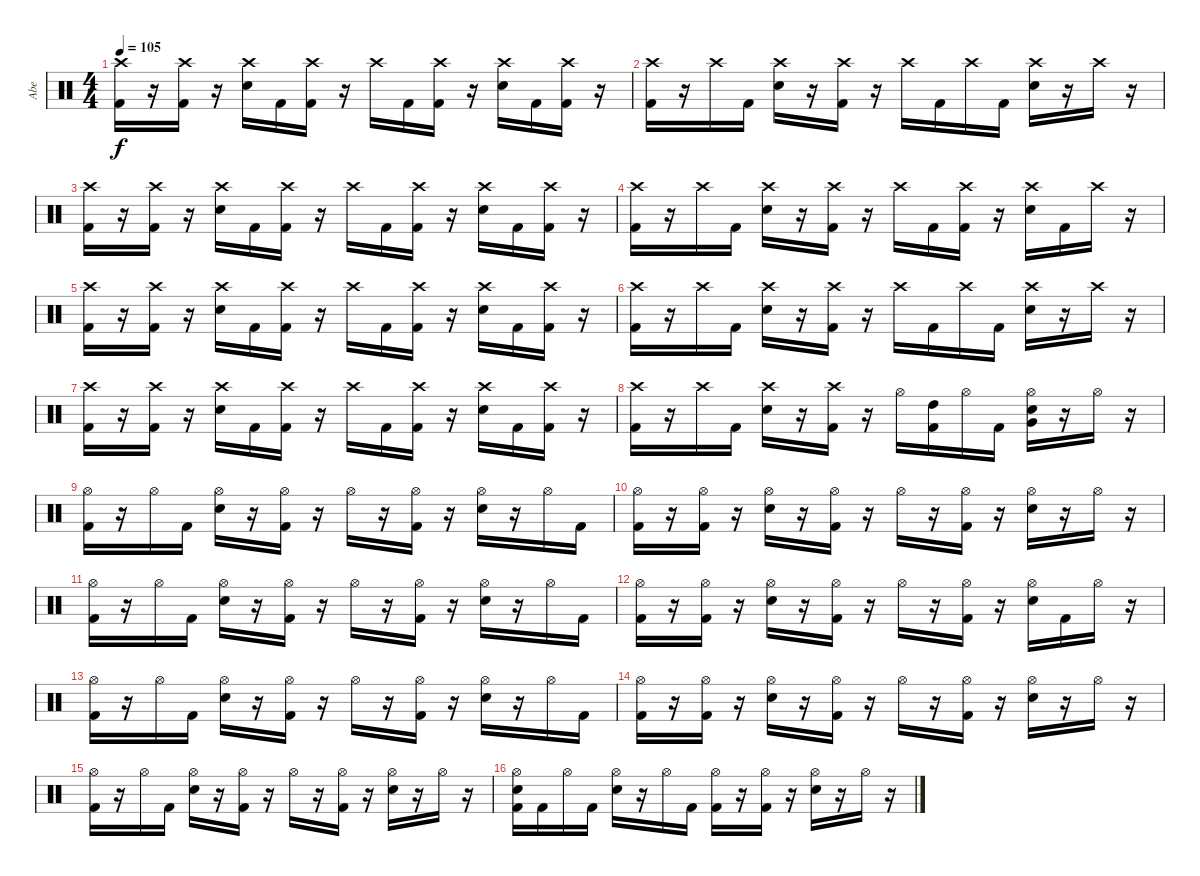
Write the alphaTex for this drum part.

\track ("Abe" "Abe") {instrument percussion}
\staff {score}
\articulation defaults
\ts (4 4)
\tempo 105
\clef neutral
\ks c
("Crash high (hit)" "Kick (hit) 2").16{dy f} r.16 ("Crash high (hit)" "Kick (hit) 2").16 r.16 ("Crash high (hit)" "Electric Snare (hit)").16 "Kick (hit) 2".16 ("Crash high (hit)" "Kick (hit) 2").16 r.16 "Crash high (hit)".16 "Kick (hit) 2".16 ("Crash high (hit)" "Kick (hit) 2").16 r.16 ("Crash high (hit)" "Electric Snare (hit)").16 "Kick (hit) 2".16 ("Crash high (hit)" "Kick (hit) 2").16 r.16 |
("Crash high (hit)" "Kick (hit) 2").16 r.16 "Crash high (hit)".16 "Kick (hit) 2".16 ("Crash high (hit)" "Electric Snare (hit)").16 r.16 ("Crash high (hit)" "Kick (hit) 2").16 r.16 "Crash high (hit)".16 "Kick (hit) 2".16 "Crash high (hit)".16 "Kick (hit) 2".16 ("Crash high (hit)" "Electric Snare (hit)").16 r.16 "Crash high (hit)".16 r.16 |
("Crash high (hit)" "Kick (hit) 2").16 r.16 ("Crash high (hit)" "Kick (hit) 2").16 r.16 ("Crash high (hit)" "Electric Snare (hit)").16 "Kick (hit) 2".16 ("Crash high (hit)" "Kick (hit) 2").16 r.16 "Crash high (hit)".16 "Kick (hit) 2".16 ("Crash high (hit)" "Kick (hit) 2").16 r.16 ("Crash high (hit)" "Electric Snare (hit)").16 "Kick (hit) 2".16 ("Crash high (hit)" "Kick (hit) 2").16 r.16 |
("Crash high (hit)" "Kick (hit) 2").16 r.16 "Crash high (hit)".16 "Kick (hit) 2".16 ("Crash high (hit)" "Electric Snare (hit)").16 r.16 ("Crash high (hit)" "Kick (hit) 2").16 r.16 "Crash high (hit)".16 "Kick (hit) 2".16 ("Crash high (hit)" "Kick (hit) 2").16 r.16 ("Crash high (hit)" "Electric Snare (hit)").16 "Kick (hit) 2".16 "Crash high (hit)".16 r.16 |
("Crash high (hit)" "Kick (hit) 2").16 r.16 ("Crash high (hit)" "Kick (hit) 2").16 r.16 ("Crash high (hit)" "Electric Snare (hit)").16 "Kick (hit) 2".16 ("Crash high (hit)" "Kick (hit) 2").16 r.16 "Crash high (hit)".16 "Kick (hit) 2".16 ("Crash high (hit)" "Kick (hit) 2").16 r.16 ("Crash high (hit)" "Electric Snare (hit)").16 "Kick (hit) 2".16 ("Crash high (hit)" "Kick (hit) 2").16 r.16 |
("Crash high (hit)" "Kick (hit) 2").16 r.16 "Crash high (hit)".16 "Kick (hit) 2".16 ("Crash high (hit)" "Electric Snare (hit)").16 r.16 ("Crash high (hit)" "Kick (hit) 2").16 r.16 "Crash high (hit)".16 "Kick (hit) 2".16 "Crash high (hit)".16 "Kick (hit) 2".16 ("Crash high (hit)" "Electric Snare (hit)").16 r.16 "Crash high (hit)".16 r.16 |
("Crash high (hit)" "Kick (hit) 2").16 r.16 ("Crash high (hit)" "Kick (hit) 2").16 r.16 ("Crash high (hit)" "Electric Snare (hit)").16 "Kick (hit) 2".16 ("Crash high (hit)" "Kick (hit) 2").16 r.16 "Crash high (hit)".16 "Kick (hit) 2".16 ("Crash high (hit)" "Kick (hit) 2").16 r.16 ("Crash high (hit)" "Electric Snare (hit)").16 "Kick (hit) 2".16 ("Crash high (hit)" "Kick (hit) 2").16 r.16 |
("Crash high (hit)" "Kick (hit) 2").16 r.16 "Crash high (hit)".16 "Kick (hit) 2".16 ("Crash high (hit)" "Electric Snare (hit)").16 r.16 ("Crash high (hit)" "Kick (hit) 2").16 r.16 "Hi-Hat (open)".16 ("High Tom (hit)" "Kick (hit) 2").16 "Hi-Hat (open)".16 "Kick (hit) 2".16 ("Electric Snare (hit)" "Hi-Hat (open)" "Very Low Tom (hit)").16 r.16 "Hi-Hat (open)".16 r.16 |
("Hi-Hat (open)" "Kick (hit) 2").16 r.16 "Hi-Hat (open)".16 "Kick (hit) 2".16 ("Hi-Hat (open)" "Electric Snare (hit)").16 r.16 ("Hi-Hat (open)" "Kick (hit) 2").16 r.16 "Hi-Hat (open)".16 r.16 ("Hi-Hat (open)" "Kick (hit) 2").16 r.16 ("Hi-Hat (open)" "Electric Snare (hit)").16 r.16 "Hi-Hat (open)".16 "Kick (hit) 2".16 |
("Hi-Hat (open)" "Kick (hit) 2").16 r.16 ("Hi-Hat (open)" "Kick (hit) 2").16 r.16 ("Hi-Hat (open)" "Electric Snare (hit)").16 r.16 ("Hi-Hat (open)" "Kick (hit) 2").16 r.16 "Hi-Hat (open)".16 r.16 ("Hi-Hat (open)" "Kick (hit) 2").16 r.16 ("Hi-Hat (open)" "Electric Snare (hit)").16 r.16 "Hi-Hat (open)".16 r.16 |
("Hi-Hat (open)" "Kick (hit) 2").16 r.16 "Hi-Hat (open)".16 "Kick (hit) 2".16 ("Hi-Hat (open)" "Electric Snare (hit)").16 r.16 ("Hi-Hat (open)" "Kick (hit) 2").16 r.16 "Hi-Hat (open)".16 r.16 ("Hi-Hat (open)" "Kick (hit) 2").16 r.16 ("Hi-Hat (open)" "Electric Snare (hit)").16 r.16 "Hi-Hat (open)".16 "Kick (hit) 2".16 |
("Hi-Hat (open)" "Kick (hit) 2").16 r.16 ("Hi-Hat (open)" "Kick (hit) 2").16 r.16 ("Hi-Hat (open)" "Electric Snare (hit)").16 r.16 ("Hi-Hat (open)" "Kick (hit) 2").16 r.16 "Hi-Hat (open)".16 r.16 ("Hi-Hat (open)" "Kick (hit) 2").16 r.16 ("Hi-Hat (open)" "Electric Snare (hit)").16 "Kick (hit) 2".16 "Hi-Hat (open)".16 r.16 |
("Hi-Hat (open)" "Kick (hit) 2").16 r.16 "Hi-Hat (open)".16 "Kick (hit) 2".16 ("Hi-Hat (open)" "Electric Snare (hit)").16 r.16 ("Hi-Hat (open)" "Kick (hit) 2").16 r.16 "Hi-Hat (open)".16 r.16 ("Hi-Hat (open)" "Kick (hit) 2").16 r.16 ("Hi-Hat (open)" "Electric Snare (hit)").16 r.16 "Hi-Hat (open)".16 "Kick (hit) 2".16 |
("Hi-Hat (open)" "Kick (hit) 2").16 r.16 ("Hi-Hat (open)" "Kick (hit) 2").16 r.16 ("Hi-Hat (open)" "Electric Snare (hit)").16 r.16 ("Hi-Hat (open)" "Kick (hit) 2").16 r.16 "Hi-Hat (open)".16 r.16 ("Hi-Hat (open)" "Kick (hit) 2").16 r.16 ("Hi-Hat (open)" "Electric Snare (hit)").16 r.16 "Hi-Hat (open)".16 r.16 |
("Hi-Hat (open)" "Kick (hit) 2").16 r.16 "Hi-Hat (open)".16 "Kick (hit) 2".16 ("Hi-Hat (open)" "Electric Snare (hit)").16 r.16 ("Hi-Hat (open)" "Kick (hit) 2").16 r.16 "Hi-Hat (open)".16 r.16 ("Hi-Hat (open)" "Kick (hit) 2").16 r.16 ("Hi-Hat (open)" "Electric Snare (hit)").16 r.16 "Hi-Hat (open)".16 r.16 |
("Electric Snare (hit)" "Hi-Hat (open)" "Kick (hit) 2").16 "Kick (hit) 2".16 "Hi-Hat (open)".16 "Kick (hit) 2".16 ("Hi-Hat (open)" "Electric Snare (hit)").16 r.16 "Hi-Hat (open)".16 "Kick (hit) 2".16 ("Hi-Hat (open)" "Kick (hit) 2").16 r.16 ("Hi-Hat (open)" "Kick (hit) 2").16 r.16 ("Hi-Hat (open)" "Electric Snare (hit)").16 r.16 "Hi-Hat (open)".16 r.16
